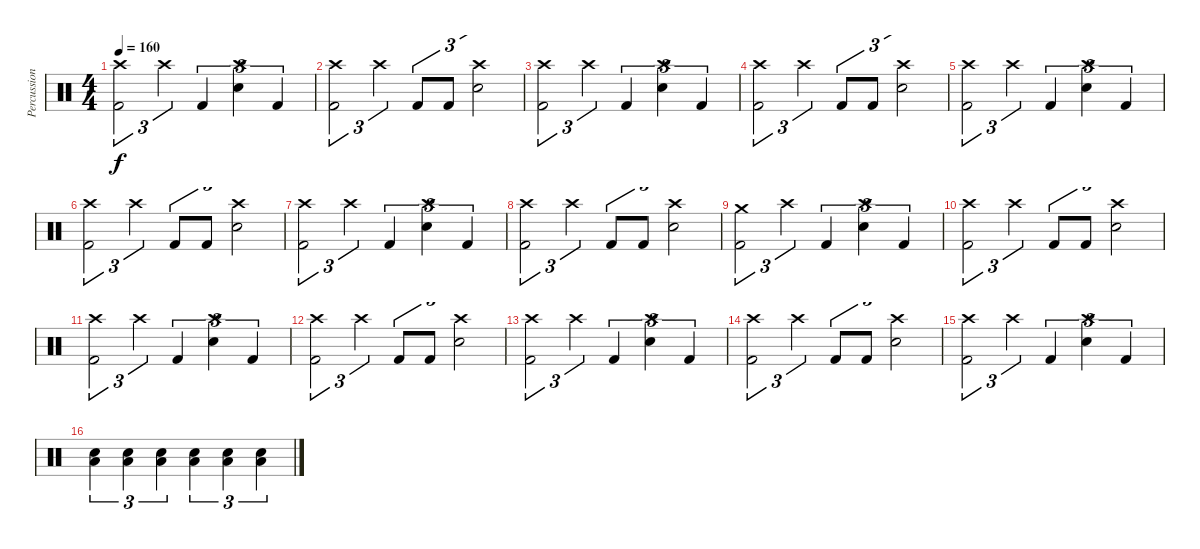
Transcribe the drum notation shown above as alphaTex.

\track ("Percussions" "Percussion") {instrument percussion}
\staff {score}
\articulation defaults
\ts (4 4)
\tempo 160
\clef neutral
\ks c
("Crash high (hit)" "Kick (hit) 2").2{tu (3 2) dy f} "Crash high (hit)".4{tu (3 2)} "Kick (hit) 2".4{tu (3 2)} ("Crash high (hit)" "Snare (hit) 2").4{tu (3 2)} "Kick (hit) 2".4{tu (3 2)} |
("Crash high (hit)" "Kick (hit) 2").2{tu (3 2)} "Crash high (hit)".4{tu (3 2)} "Kick (hit) 2".8{tu (3 2)} "Kick (hit) 2".8{tu (3 2)} ("Crash high (hit)" "Snare (hit) 2").2{tu (3 2)} |
("Crash high (hit)" "Kick (hit) 2").2{tu (3 2)} "Crash high (hit)".4{tu (3 2)} "Kick (hit) 2".4{tu (3 2)} ("Crash high (hit)" "Snare (hit) 2").4{tu (3 2)} "Kick (hit) 2".4{tu (3 2)} |
("Crash high (hit)" "Kick (hit) 2").2{tu (3 2)} "Crash high (hit)".4{tu (3 2)} "Kick (hit) 2".8{tu (3 2)} "Kick (hit) 2".8{tu (3 2)} ("Crash high (hit)" "Snare (hit) 2").2{tu (3 2)} |
("Crash high (hit)" "Kick (hit) 2").2{tu (3 2)} "Crash high (hit)".4{tu (3 2)} "Kick (hit) 2".4{tu (3 2)} ("Crash high (hit)" "Snare (hit) 2").4{tu (3 2)} "Kick (hit) 2".4{tu (3 2)} |
("Crash high (hit)" "Kick (hit) 2").2{tu (3 2)} "Crash high (hit)".4{tu (3 2)} "Kick (hit) 2".8{tu (3 2)} "Kick (hit) 2".8{tu (3 2)} ("Crash high (hit)" "Snare (hit) 2").2{tu (3 2)} |
("Crash high (hit)" "Kick (hit) 2").2{tu (3 2)} "Crash high (hit)".4{tu (3 2)} "Kick (hit) 2".4{tu (3 2)} ("Crash high (hit)" "Snare (hit) 2").4{tu (3 2)} "Kick (hit) 2".4{tu (3 2)} |
("Crash high (hit)" "Kick (hit) 2").2{tu (3 2)} "Crash high (hit)".4{tu (3 2)} "Kick (hit) 2".8{tu (3 2)} "Kick (hit) 2".8{tu (3 2)} ("Crash high (hit)" "Snare (hit) 2").2{tu (3 2)} |
("Crash medium (hit)" "Kick (hit) 2").2{tu (3 2)} "Crash high (hit)".4{tu (3 2)} "Kick (hit) 2".4{tu (3 2)} ("Crash high (hit)" "Snare (hit) 2").4{tu (3 2)} "Kick (hit) 2".4{tu (3 2)} |
("Crash high (hit)" "Kick (hit) 2").2{tu (3 2)} "Crash high (hit)".4{tu (3 2)} "Kick (hit) 2".8{tu (3 2)} "Kick (hit) 2".8{tu (3 2)} ("Crash high (hit)" "Snare (hit) 2").2{tu (3 2)} |
("Crash high (hit)" "Kick (hit) 2").2{tu (3 2)} "Crash high (hit)".4{tu (3 2)} "Kick (hit) 2".4{tu (3 2)} ("Crash high (hit)" "Snare (hit) 2").4{tu (3 2)} "Kick (hit) 2".4{tu (3 2)} |
("Crash high (hit)" "Kick (hit) 2").2{tu (3 2)} "Crash high (hit)".4{tu (3 2)} "Kick (hit) 2".8{tu (3 2)} "Kick (hit) 2".8{tu (3 2)} ("Crash high (hit)" "Snare (hit) 2").2{tu (3 2)} |
("Crash high (hit)" "Kick (hit) 2").2{tu (3 2)} "Crash high (hit)".4{tu (3 2)} "Kick (hit) 2".4{tu (3 2)} ("Crash high (hit)" "Snare (hit) 2").4{tu (3 2)} "Kick (hit) 2".4{tu (3 2)} |
("Crash high (hit)" "Kick (hit) 2").2{tu (3 2)} "Crash high (hit)".4{tu (3 2)} "Kick (hit) 2".8{tu (3 2)} "Kick (hit) 2".8{tu (3 2)} ("Crash high (hit)" "Snare (hit) 2").2{tu (3 2)} |
("Crash high (hit)" "Kick (hit) 2").2{tu (3 2)} "Crash high (hit)".4{tu (3 2)} "Kick (hit) 2".4{tu (3 2)} ("Crash high (hit)" "Snare (hit) 2").4{tu (3 2)} "Kick (hit) 2".4{tu (3 2)} |
("Snare (hit) 2" "Low Tom (hit)").4{tu (3 2)} ("Snare (hit) 2" "Low Tom (hit)").4{tu (3 2)} ("Snare (hit) 2" "Low Tom (hit)").4{tu (3 2)} ("Snare (hit) 2" "Low Tom (hit)").4{tu (3 2)} ("Snare (hit) 2" "Low Tom (hit)").4{tu (3 2)} ("Snare (hit) 2" "Low Tom (hit)").4{tu (3 2)}
